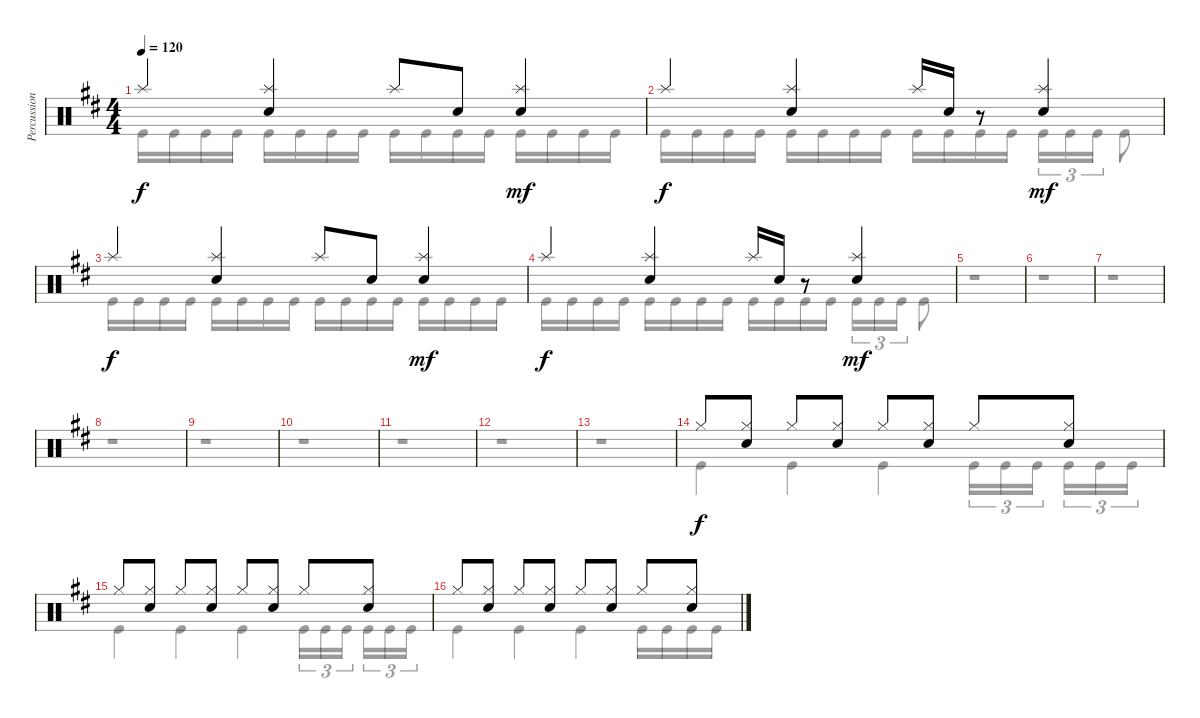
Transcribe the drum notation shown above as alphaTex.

\track ("Percussion" "Percussion") {instrument percussion}
\staff {score}
\articulation defaults
\voice
\ts (4 4)
\tempo 120
\clef neutral
\ks bminor "Splash (hit)".4{dy f}
("Splash (hit)" "Snare (hit) 2").4 "Splash (hit)".8 "Snare (hit) 2".8 ("Splash (hit)" "Snare (hit) 2").4{dy mf} |
"Splash (hit)".4{dy f} ("Splash (hit)" "Snare (hit) 2").4 "Splash (hit)".16 "Snare (hit) 2".16 r.8 ("Splash (hit)" "Snare (hit) 2").4{dy mf} |
"Splash (hit)".4{dy f} ("Splash (hit)" "Snare (hit) 2").4 "Splash (hit)".8 "Snare (hit) 2".8 ("Splash (hit)" "Snare (hit) 2").4{dy mf} |
"Splash (hit)".4{dy f} ("Splash (hit)" "Snare (hit) 2").4 "Splash (hit)".16 "Snare (hit) 2".16 r.8 ("Splash (hit)" "Snare (hit) 2").4{dy mf} |
|
|
|
|
|
|
|
|
|
"Hi-Hat (closed)".8{dy f} ("Hi-Hat (closed)" "Snare (hit) 2").8 "Hi-Hat (closed)".8 ("Hi-Hat (closed)" "Snare (hit) 2").8 "Hi-Hat (closed)".8 ("Hi-Hat (closed)" "Snare (hit) 2").8 "Hi-Hat (closed)".8 ("Hi-Hat (closed)" "Snare (hit) 2").8 |
"Hi-Hat (closed)".8 ("Hi-Hat (closed)" "Snare (hit) 2").8 "Hi-Hat (closed)".8 ("Hi-Hat (closed)" "Snare (hit) 2").8 "Hi-Hat (closed)".8 ("Hi-Hat (closed)" "Snare (hit) 2").8 "Hi-Hat (closed)".8 ("Hi-Hat (closed)" "Snare (hit) 2").8 |
"Hi-Hat (closed)".8 ("Hi-Hat (closed)" "Snare (hit) 2").8 "Hi-Hat (closed)".8 ("Hi-Hat (closed)" "Snare (hit) 2").8 "Hi-Hat (closed)".8 ("Hi-Hat (closed)" "Snare (hit) 2").8 "Hi-Hat (closed)".8 ("Hi-Hat (closed)" "Snare (hit) 2").8
\voice
\clef neutral
\ottava regular
\simile none
\ks bminor "Kick (hit)".16{dy f} "Kick (hit)".16 "Kick (hit)".16 "Kick (hit)".16 "Kick (hit)".16 "Kick (hit)".16 "Kick (hit)".16 "Kick (hit)".16 "Kick (hit)".16 "Kick (hit)".16 "Kick (hit)".16 "Kick (hit)".16 "Kick (hit)".16 "Kick (hit)".16 "Kick (hit)".16 "Kick (hit)".16
|
"Kick (hit)".16 "Kick (hit)".16 "Kick (hit)".16 "Kick (hit)".16 "Kick (hit)".16 "Kick (hit)".16 "Kick (hit)".16 "Kick (hit)".16 "Kick (hit)".16 "Kick (hit)".16 "Kick (hit)".16 "Kick (hit)".16 "Kick (hit)".16{tu (3 2)} "Kick (hit)".16{tu (3 2)} "Kick (hit)".16{tu (3 2)} "Kick (hit)".8 |
"Kick (hit)".16 "Kick (hit)".16 "Kick (hit)".16 "Kick (hit)".16 "Kick (hit)".16 "Kick (hit)".16 "Kick (hit)".16 "Kick (hit)".16 "Kick (hit)".16 "Kick (hit)".16 "Kick (hit)".16 "Kick (hit)".16 "Kick (hit)".16 "Kick (hit)".16 "Kick (hit)".16 "Kick (hit)".16 |
"Kick (hit)".16 "Kick (hit)".16 "Kick (hit)".16 "Kick (hit)".16 "Kick (hit)".16 "Kick (hit)".16 "Kick (hit)".16 "Kick (hit)".16 "Kick (hit)".16 "Kick (hit)".16 "Kick (hit)".16 "Kick (hit)".16 "Kick (hit)".16{tu (3 2)} "Kick (hit)".16{tu (3 2)} "Kick (hit)".16{tu (3 2)} "Kick (hit)".8 |
r.1 |
r.1 |
r.1 |
r.1 |
r.1 |
r.1 |
r.1 |
r.1 |
r.1 |
"Kick (hit)".4 "Kick (hit)".4 "Kick (hit)".4 "Kick (hit)".16{tu (3 2)} "Kick (hit)".16{tu (3 2)} "Kick (hit)".16{tu (3 2) beam splitsecondary} "Kick (hit)".16{tu (3 2)} "Kick (hit)".16{tu (3 2)} "Kick (hit)".16{tu (3 2)} |
"Kick (hit)".4 "Kick (hit)".4 "Kick (hit)".4 "Kick (hit)".16{tu (3 2)} "Kick (hit)".16{tu (3 2)} "Kick (hit)".16{tu (3 2) beam splitsecondary} "Kick (hit)".16{tu (3 2)} "Kick (hit)".16{tu (3 2)} "Kick (hit)".16{tu (3 2)} |
"Kick (hit)".4 "Kick (hit)".4 "Kick (hit)".4 "Kick (hit)".16 "Kick (hit)".16 "Kick (hit)".16 "Kick (hit)".16
